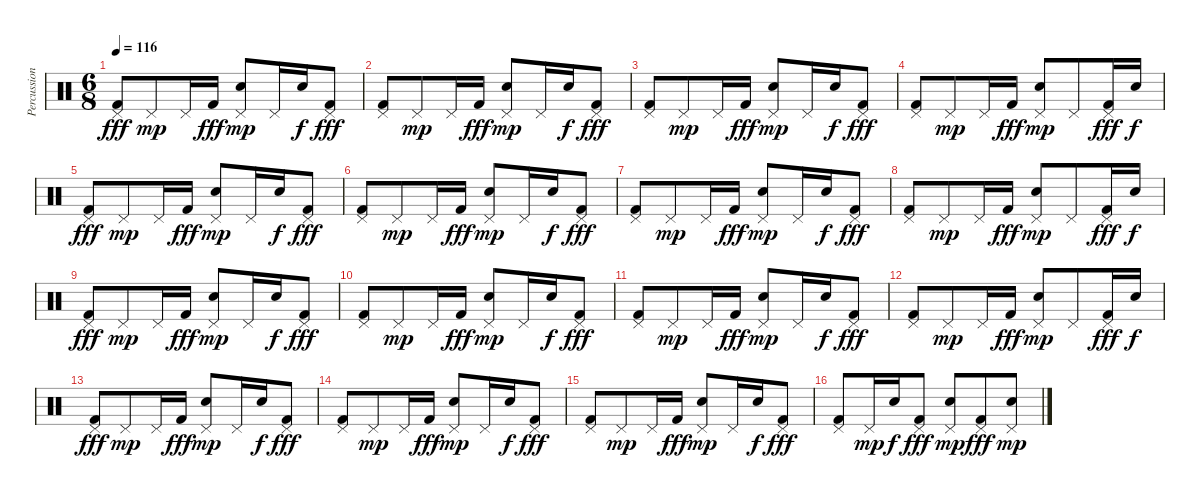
\track ("Percussions" "Percussion") {instrument percussion}
\staff {score}
\articulation defaults
\ts (6 8)
\tempo 116
\clef neutral
\ks c
("Pedal Hi-Hat (hit)" "Kick (hit) 2").8{dy fff} "Pedal Hi-Hat (hit)".8{dy mp} "Pedal Hi-Hat (hit)".16 "Kick (hit) 2".16{dy fff} ("Pedal Hi-Hat (hit)" "Snare (hit) 2").8{dy mp} "Pedal Hi-Hat (hit)".16 "Snare (hit) 2".16{dy f} ("Pedal Hi-Hat (hit)" "Kick (hit) 2").8{dy fff} |
("Pedal Hi-Hat (hit)" "Kick (hit) 2").8 "Pedal Hi-Hat (hit)".8{dy mp} "Pedal Hi-Hat (hit)".16 "Kick (hit) 2".16{dy fff} ("Pedal Hi-Hat (hit)" "Snare (hit) 2").8{dy mp} "Pedal Hi-Hat (hit)".16 "Snare (hit) 2".16{dy f} ("Pedal Hi-Hat (hit)" "Kick (hit) 2").8{dy fff} |
("Pedal Hi-Hat (hit)" "Kick (hit) 2").8 "Pedal Hi-Hat (hit)".8{dy mp} "Pedal Hi-Hat (hit)".16 "Kick (hit) 2".16{dy fff} ("Pedal Hi-Hat (hit)" "Snare (hit) 2").8{dy mp} "Pedal Hi-Hat (hit)".16 "Snare (hit) 2".16{dy f} ("Pedal Hi-Hat (hit)" "Kick (hit) 2").8{dy fff} |
("Pedal Hi-Hat (hit)" "Kick (hit) 2").8 "Pedal Hi-Hat (hit)".8{dy mp} "Pedal Hi-Hat (hit)".16 "Kick (hit) 2".16{dy fff} ("Pedal Hi-Hat (hit)" "Snare (hit) 2").8{dy mp} "Pedal Hi-Hat (hit)".8 ("Pedal Hi-Hat (hit)" "Kick (hit) 2").16{dy fff} "Snare (hit) 2".16{dy f} |
("Pedal Hi-Hat (hit)" "Kick (hit) 2").8{dy fff} "Pedal Hi-Hat (hit)".8{dy mp} "Pedal Hi-Hat (hit)".16 "Kick (hit) 2".16{dy fff} ("Pedal Hi-Hat (hit)" "Snare (hit) 2").8{dy mp} "Pedal Hi-Hat (hit)".16 "Snare (hit) 2".16{dy f} ("Pedal Hi-Hat (hit)" "Kick (hit) 2").8{dy fff} |
("Pedal Hi-Hat (hit)" "Kick (hit) 2").8 "Pedal Hi-Hat (hit)".8{dy mp} "Pedal Hi-Hat (hit)".16 "Kick (hit) 2".16{dy fff} ("Pedal Hi-Hat (hit)" "Snare (hit) 2").8{dy mp} "Pedal Hi-Hat (hit)".16 "Snare (hit) 2".16{dy f} ("Pedal Hi-Hat (hit)" "Kick (hit) 2").8{dy fff} |
("Pedal Hi-Hat (hit)" "Kick (hit) 2").8 "Pedal Hi-Hat (hit)".8{dy mp} "Pedal Hi-Hat (hit)".16 "Kick (hit) 2".16{dy fff} ("Pedal Hi-Hat (hit)" "Snare (hit) 2").8{dy mp} "Pedal Hi-Hat (hit)".16 "Snare (hit) 2".16{dy f} ("Pedal Hi-Hat (hit)" "Kick (hit) 2").8{dy fff} |
("Pedal Hi-Hat (hit)" "Kick (hit) 2").8 "Pedal Hi-Hat (hit)".8{dy mp} "Pedal Hi-Hat (hit)".16 "Kick (hit) 2".16{dy fff} ("Pedal Hi-Hat (hit)" "Snare (hit) 2").8{dy mp} "Pedal Hi-Hat (hit)".8 ("Pedal Hi-Hat (hit)" "Kick (hit) 2").16{dy fff} "Snare (hit) 2".16{dy f} |
("Pedal Hi-Hat (hit)" "Kick (hit) 2").8{dy fff} "Pedal Hi-Hat (hit)".8{dy mp} "Pedal Hi-Hat (hit)".16 "Kick (hit) 2".16{dy fff} ("Pedal Hi-Hat (hit)" "Snare (hit) 2").8{dy mp} "Pedal Hi-Hat (hit)".16 "Snare (hit) 2".16{dy f} ("Pedal Hi-Hat (hit)" "Kick (hit) 2").8{dy fff} |
("Pedal Hi-Hat (hit)" "Kick (hit) 2").8 "Pedal Hi-Hat (hit)".8{dy mp} "Pedal Hi-Hat (hit)".16 "Kick (hit) 2".16{dy fff} ("Pedal Hi-Hat (hit)" "Snare (hit) 2").8{dy mp} "Pedal Hi-Hat (hit)".16 "Snare (hit) 2".16{dy f} ("Pedal Hi-Hat (hit)" "Kick (hit) 2").8{dy fff} |
("Pedal Hi-Hat (hit)" "Kick (hit) 2").8 "Pedal Hi-Hat (hit)".8{dy mp} "Pedal Hi-Hat (hit)".16 "Kick (hit) 2".16{dy fff} ("Pedal Hi-Hat (hit)" "Snare (hit) 2").8{dy mp} "Pedal Hi-Hat (hit)".16 "Snare (hit) 2".16{dy f} ("Pedal Hi-Hat (hit)" "Kick (hit) 2").8{dy fff} |
("Pedal Hi-Hat (hit)" "Kick (hit) 2").8 "Pedal Hi-Hat (hit)".8{dy mp} "Pedal Hi-Hat (hit)".16 "Kick (hit) 2".16{dy fff} ("Pedal Hi-Hat (hit)" "Snare (hit) 2").8{dy mp} "Pedal Hi-Hat (hit)".8 ("Pedal Hi-Hat (hit)" "Kick (hit) 2").16{dy fff} "Snare (hit) 2".16{dy f} |
("Pedal Hi-Hat (hit)" "Kick (hit) 2").8{dy fff} "Pedal Hi-Hat (hit)".8{dy mp} "Pedal Hi-Hat (hit)".16 "Kick (hit) 2".16{dy fff} ("Pedal Hi-Hat (hit)" "Snare (hit) 2").8{dy mp} "Pedal Hi-Hat (hit)".16 "Snare (hit) 2".16{dy f} ("Pedal Hi-Hat (hit)" "Kick (hit) 2").8{dy fff} |
("Pedal Hi-Hat (hit)" "Kick (hit) 2").8 "Pedal Hi-Hat (hit)".8{dy mp} "Pedal Hi-Hat (hit)".16 "Kick (hit) 2".16{dy fff} ("Pedal Hi-Hat (hit)" "Snare (hit) 2").8{dy mp} "Pedal Hi-Hat (hit)".16 "Snare (hit) 2".16{dy f} ("Pedal Hi-Hat (hit)" "Kick (hit) 2").8{dy fff} |
("Pedal Hi-Hat (hit)" "Kick (hit) 2").8 "Pedal Hi-Hat (hit)".8{dy mp} "Pedal Hi-Hat (hit)".16 "Kick (hit) 2".16{dy fff} ("Pedal Hi-Hat (hit)" "Snare (hit) 2").8{dy mp} "Pedal Hi-Hat (hit)".16 "Snare (hit) 2".16{dy f} ("Pedal Hi-Hat (hit)" "Kick (hit) 2").8{dy fff} |
("Pedal Hi-Hat (hit)" "Kick (hit) 2").8 "Pedal Hi-Hat (hit)".16{dy mp} "Snare (hit) 2".16{dy f} ("Pedal Hi-Hat (hit)" "Kick (hit) 2").8{dy fff} ("Pedal Hi-Hat (hit)" "Snare (hit) 2").8{dy mp} ("Pedal Hi-Hat (hit)" "Kick (hit) 2").8{dy fff} ("Pedal Hi-Hat (hit)" "Snare (hit) 2").8{dy mp}
